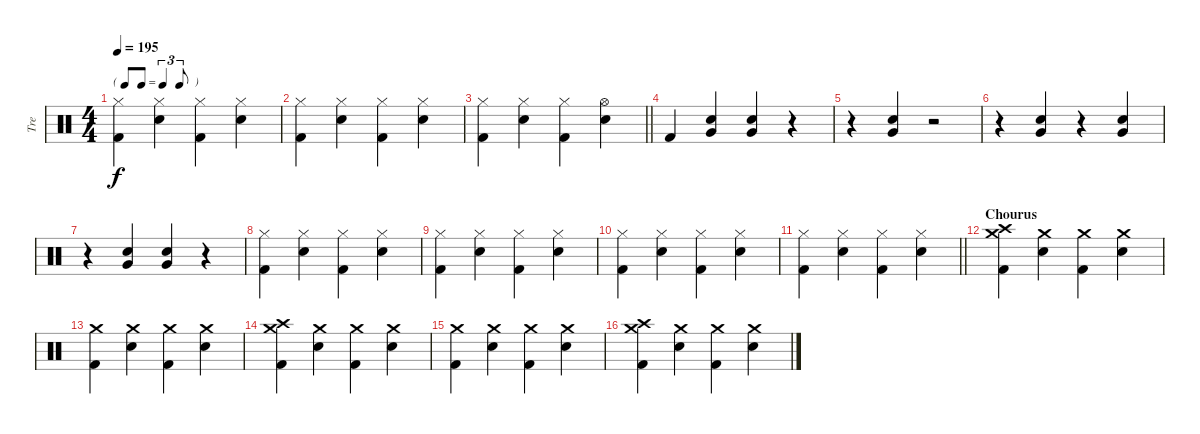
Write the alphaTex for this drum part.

\track ("Tre" "Tre") {instrument percussion}
\staff {score}
\articulation defaults
\ts (4 4)
\tf triplet8th
\tempo 195
\clef neutral
\ks c
("Hi-Hat (closed)" "Kick (hit) 2").4{dy f} ("Hi-Hat (closed)" "Snare (hit) 2").4 ("Hi-Hat (closed)" "Kick (hit) 2").4 ("Hi-Hat (closed)" "Snare (hit) 2").4 |
("Hi-Hat (closed)" "Kick (hit) 2").4 ("Hi-Hat (closed)" "Snare (hit) 2").4 ("Hi-Hat (closed)" "Kick (hit) 2").4 ("Hi-Hat (closed)" "Snare (hit) 2").4 |
\barLineRight lightlight
("Hi-Hat (closed)" "Kick (hit) 2").4 ("Hi-Hat (closed)" "Snare (hit) 2").4 ("Hi-Hat (closed)" "Kick (hit) 2").4 ("Hi-Hat (open)" "Snare (hit) 2").4 |
"Kick (hit) 2".4 ("Snare (hit) 2" "Very Low Tom (hit)").4 ("Snare (hit) 2" "Very Low Tom (hit)").4 r.4 |
r.4 ("Snare (hit) 2" "Very Low Tom (hit)").4 r.2 |
r.4 ("Snare (hit) 2" "Very Low Tom (hit)").4 r.4 ("Snare (hit) 2" "Very Low Tom (hit)").4 |
r.4 ("Snare (hit) 2" "Very Low Tom (hit)").4 ("Snare (hit) 2" "Very Low Tom (hit)").4 r.4 |
("Hi-Hat (closed)" "Kick (hit) 2").4 ("Hi-Hat (closed)" "Snare (hit) 2").4 ("Hi-Hat (closed)" "Kick (hit) 2").4 ("Hi-Hat (closed)" "Snare (hit) 2").4 |
("Hi-Hat (closed)" "Kick (hit) 2").4 ("Hi-Hat (closed)" "Snare (hit) 2").4 ("Hi-Hat (closed)" "Kick (hit) 2").4 ("Hi-Hat (closed)" "Snare (hit) 2").4 |
("Hi-Hat (closed)" "Kick (hit) 2").4 ("Hi-Hat (closed)" "Snare (hit) 2").4 ("Hi-Hat (closed)" "Kick (hit) 2").4 ("Hi-Hat (closed)" "Snare (hit) 2").4 |
\barLineRight lightlight
("Hi-Hat (closed)" "Kick (hit) 2").4 ("Hi-Hat (closed)" "Snare (hit) 2").4 ("Hi-Hat (closed)" "Kick (hit) 2").4 ("Hi-Hat (closed)" "Snare (hit) 2").4 |
\section ("" "Chourus")
("Crash medium (hit)" "Crash high (hit)" "Kick (hit) 2").4 ("Crash medium (hit)" "Snare (hit) 2").4 ("Crash medium (hit)" "Kick (hit) 2").4 ("Crash medium (hit)" "Snare (hit) 2").4 |
("Crash medium (hit)" "Kick (hit) 2").4 ("Crash medium (hit)" "Snare (hit) 2").4 ("Crash medium (hit)" "Kick (hit) 2").4 ("Crash medium (hit)" "Snare (hit) 2").4 |
("Crash medium (hit)" "Crash high (hit)" "Kick (hit) 2").4 ("Crash medium (hit)" "Snare (hit) 2").4 ("Crash medium (hit)" "Kick (hit) 2").4 ("Crash medium (hit)" "Snare (hit) 2").4 |
("Crash medium (hit)" "Kick (hit) 2").4 ("Crash medium (hit)" "Snare (hit) 2").4 ("Crash medium (hit)" "Kick (hit) 2").4 ("Crash medium (hit)" "Snare (hit) 2").4 |
("Crash medium (hit)" "Crash high (hit)" "Kick (hit) 2").4 ("Crash medium (hit)" "Snare (hit) 2").4 ("Crash medium (hit)" "Kick (hit) 2").4 ("Crash medium (hit)" "Snare (hit) 2").4
